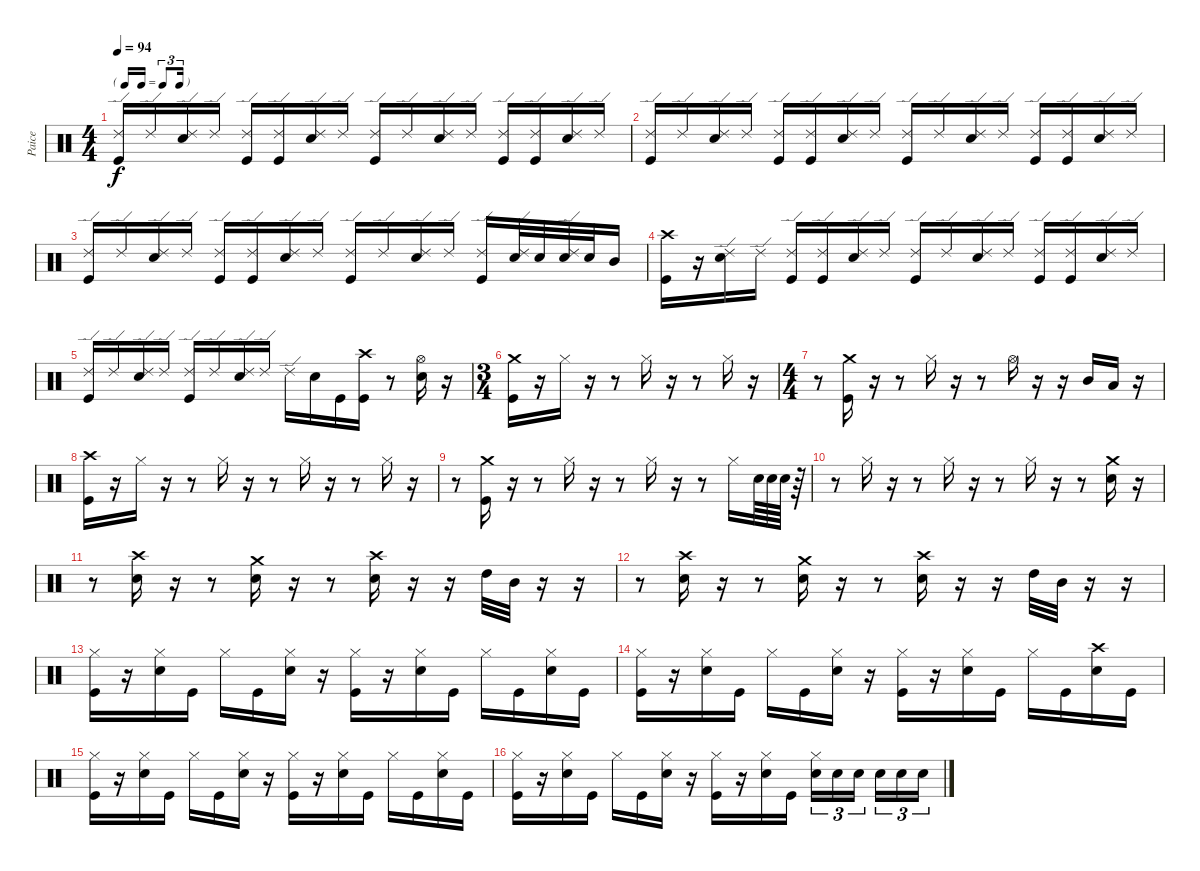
\track ("Paice" "Paice") {instrument percussion}
\staff {score}
\articulation defaults
\ts (4 4)
\tf triplet16th
\tempo 94
\clef neutral
\ks c
("Ride (edge) 2" "Kick (hit)").16{dy f} "Ride (edge) 2".16 ("Ride (edge) 2" "Snare (hit) 2").16 "Ride (edge) 2".16 ("Ride (edge) 2" "Kick (hit)").16 ("Ride (edge) 2" "Kick (hit)").16 ("Ride (edge) 2" "Snare (hit) 2").16 "Ride (edge) 2".16 ("Ride (edge) 2" "Kick (hit)").16 "Ride (edge) 2".16 ("Ride (edge) 2" "Snare (hit) 2").16 "Ride (edge) 2".16 ("Ride (edge) 2" "Kick (hit)").16 ("Ride (edge) 2" "Kick (hit)").16 ("Ride (edge) 2" "Snare (hit) 2").16 "Ride (edge) 2".16 |
("Ride (edge) 2" "Kick (hit)").16 "Ride (edge) 2".16 ("Ride (edge) 2" "Snare (hit) 2").16 "Ride (edge) 2".16 ("Ride (edge) 2" "Kick (hit)").16 ("Ride (edge) 2" "Kick (hit)").16 ("Ride (edge) 2" "Snare (hit) 2").16 "Ride (edge) 2".16 ("Ride (edge) 2" "Kick (hit)").16 "Ride (edge) 2".16 ("Ride (edge) 2" "Snare (hit) 2").16 "Ride (edge) 2".16 ("Ride (edge) 2" "Kick (hit)").16 ("Ride (edge) 2" "Kick (hit)").16 ("Ride (edge) 2" "Snare (hit) 2").16 "Ride (edge) 2".16 |
("Ride (edge) 2" "Kick (hit)").16 "Ride (edge) 2".16 ("Ride (edge) 2" "Snare (hit) 2").16 "Ride (edge) 2".16 ("Ride (edge) 2" "Kick (hit)").16 ("Ride (edge) 2" "Kick (hit)").16 ("Ride (edge) 2" "Snare (hit) 2").16 "Ride (edge) 2".16 ("Ride (edge) 2" "Kick (hit)").16 "Ride (edge) 2".16 ("Ride (edge) 2" "Snare (hit) 2").16 "Ride (edge) 2".16 ("Ride (edge) 2" "Kick (hit)").16 ("Ride (edge) 2" "Snare (hit) 2").32 "Snare (hit) 2".32 ("Ride (edge) 2" "Snare (hit) 2").32 "Snare (hit) 2".32 "Mid Tom (hit)".16 |
("Crash high (hit)" "Kick (hit)").16 r.16 ("Ride (edge) 2" "Snare (hit) 2").16 "Ride (edge) 2".16 ("Ride (edge) 2" "Kick (hit)").16 ("Ride (edge) 2" "Kick (hit)").16 ("Ride (edge) 2" "Snare (hit) 2").16 "Ride (edge) 2".16 ("Ride (edge) 2" "Kick (hit)").16 "Ride (edge) 2".16 ("Ride (edge) 2" "Snare (hit) 2").16 "Ride (edge) 2".16 ("Ride (edge) 2" "Kick (hit)").16 ("Ride (edge) 2" "Kick (hit)").16 ("Ride (edge) 2" "Snare (hit) 2").16 "Ride (edge) 2".16 |
("Ride (edge) 2" "Kick (hit)").16 "Ride (edge) 2".16 ("Ride (edge) 2" "Snare (hit) 2").16 "Ride (edge) 2".16 ("Ride (edge) 2" "Kick (hit)").16 "Ride (edge) 2".16 ("Ride (edge) 2" "Snare (hit) 2").16 "Ride (edge) 2".16 "Ride (edge) 2".16 "Snare (hit) 2".16 "Kick (hit)".16 ("Crash high (hit)" "Kick (hit)").16 r.8 ("Hi-Hat (open)" "Snare (hit) 2").16 r.16 |
\ts (3 4)
("Crash medium (hit)" "Kick (hit)").16 r.16 "Hi-Hat (closed)".16 r.16 r.8 "Hi-Hat (closed)".16 r.16 r.8 "Hi-Hat (closed)".16 r.16 |
\ts (4 4)
r.8 ("Crash medium (hit)" "Kick (hit)").16 r.16 r.8 "Hi-Hat (closed)".16 r.16 r.8 "Hi-Hat (open)".16 r.16 r.16 "Mid Tom (hit)".16 "Low Tom (hit)".16 r.16 |
("Crash high (hit)" "Kick (hit)").16 r.16 "Hi-Hat (closed)".16 r.16 r.8 "Hi-Hat (closed)".16 r.16 r.8 "Hi-Hat (closed)".16 r.16 r.8 "Hi-Hat (closed)".16 r.16 |
r.8 ("Crash medium (hit)" "Kick (hit)").16 r.16 r.8 "Hi-Hat (closed)".16 r.16 r.8 "Hi-Hat (closed)".16 r.16 r.8 "Hi-Hat (closed)".16 "Snare (hit) 2".64 "Snare (hit) 2".64 "Snare (hit) 2".64 r.64 |
r.8 "Hi-Hat (closed)".16 r.16 r.8 "Hi-Hat (closed)".16 r.16 r.8 "Hi-Hat (closed)".16 r.16 r.8 ("Crash medium (hit)" "Snare (hit) 2").16 r.16 |
r.8 ("Crash high (hit)" "Snare (hit) 2").16 r.16 r.8 ("Crash medium (hit)" "Snare (hit) 2").16 r.16 r.8 ("Crash high (hit)" "Snare (hit) 2").16 r.16 r.16 "High Tom (hit)".32 "Mid Tom (hit)".32 r.16 r.16 |
r.8 ("Crash high (hit)" "Snare (hit) 2").16 r.16 r.8 ("Crash medium (hit)" "Snare (hit) 2").16 r.16 r.8 ("Crash high (hit)" "Snare (hit) 2").16 r.16 r.16 "High Tom (hit)".32 "Mid Tom (hit)".32 r.16 r.16 |
("Hi-Hat (closed)" "Kick (hit)").16 r.16 ("Hi-Hat (closed)" "Snare (hit) 2").16 "Kick (hit)".16 "Hi-Hat (closed)".16 "Kick (hit)".16 ("Hi-Hat (closed)" "Snare (hit) 2").16 r.16 ("Hi-Hat (closed)" "Kick (hit)").16 r.16 ("Hi-Hat (closed)" "Snare (hit) 2").16 "Kick (hit)".16 "Hi-Hat (closed)".16 "Kick (hit)".16 ("Hi-Hat (closed)" "Snare (hit) 2").16 "Kick (hit)".16 |
("Hi-Hat (closed)" "Kick (hit)").16 r.16 ("Hi-Hat (closed)" "Snare (hit) 2").16 "Kick (hit)".16 "Hi-Hat (closed)".16 "Kick (hit)".16 ("Hi-Hat (closed)" "Snare (hit) 2").16 r.16 ("Hi-Hat (closed)" "Kick (hit)").16 r.16 ("Hi-Hat (closed)" "Snare (hit) 2").16 "Kick (hit)".16 "Hi-Hat (closed)".16 "Kick (hit)".16 ("Crash high (hit)" "Snare (hit) 2").16 "Kick (hit)".16 |
("Hi-Hat (closed)" "Kick (hit)").16 r.16 ("Hi-Hat (closed)" "Snare (hit) 2").16 "Kick (hit)".16 "Hi-Hat (closed)".16 "Kick (hit)".16 ("Hi-Hat (closed)" "Snare (hit) 2").16 r.16 ("Hi-Hat (closed)" "Kick (hit)").16 r.16 ("Hi-Hat (closed)" "Snare (hit) 2").16 "Kick (hit)".16 "Hi-Hat (closed)".16 "Kick (hit)".16 ("Hi-Hat (closed)" "Snare (hit) 2").16 "Kick (hit)".16 |
("Hi-Hat (closed)" "Kick (hit)").16 r.16 ("Hi-Hat (closed)" "Snare (hit) 2").16 "Kick (hit)".16 "Hi-Hat (closed)".16 "Kick (hit)".16 ("Hi-Hat (closed)" "Snare (hit) 2").16 r.16 ("Hi-Hat (closed)" "Kick (hit)").16 r.16 ("Hi-Hat (closed)" "Snare (hit) 2").16 "Kick (hit)".16 ("Hi-Hat (closed)" "Snare (hit) 2").16{tu (3 2)} "Snare (hit) 2".16{tu (3 2)} "Snare (hit) 2".16{tu (3 2) beam splitsecondary} "Snare (hit) 2".16{tu (3 2)} "Snare (hit) 2".16{tu (3 2)} "Snare (hit) 2".16{tu (3 2)}
